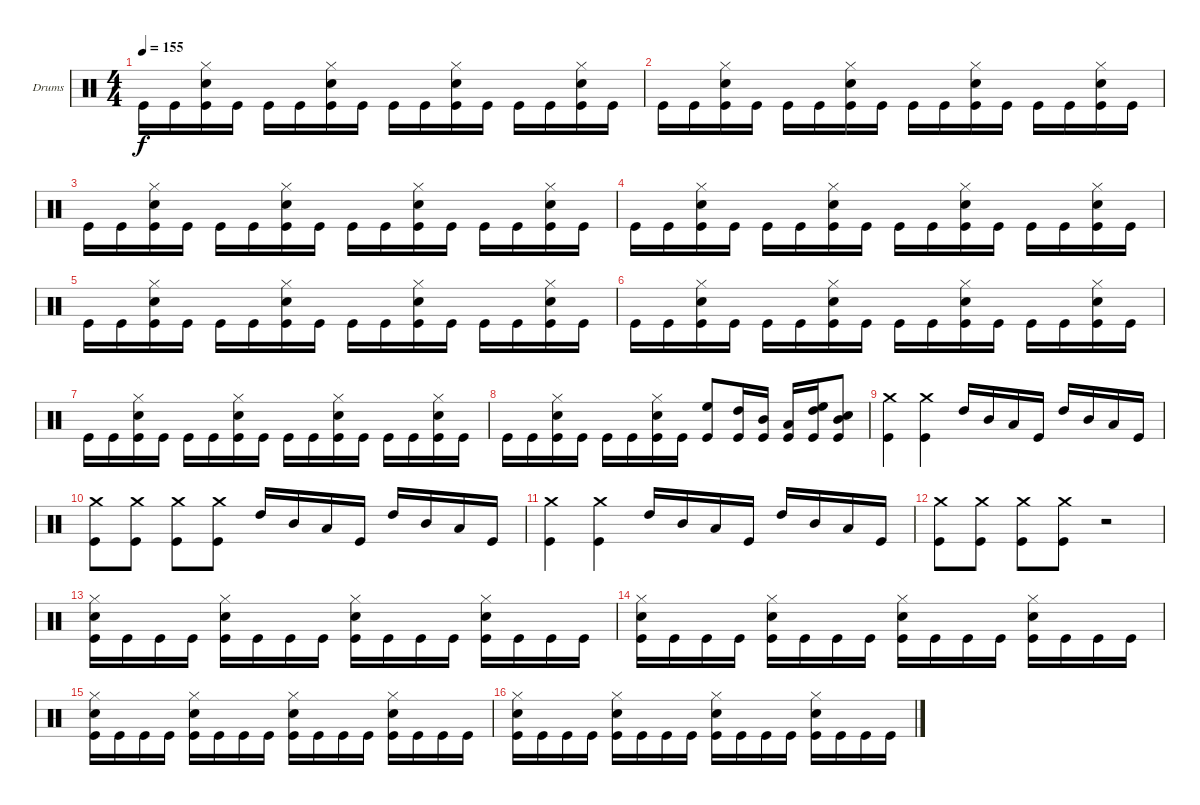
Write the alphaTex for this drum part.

\defaultSystemsLayout 4
\bracketExtendMode groupsimilarinstruments
\firstSystemTrackNameOrientation horizontal
\otherSystemsTrackNameOrientation horizontal
\track ("Drumkit" "Drums") {instrument percussion}
\staff {score}
\articulation defaults
\ts (4 4)
\tempo 155
\clef neutral
\ks c "Kick (hit)".16{dy f} "Kick (hit)".16
("Kick (hit)" "Snare (hit) 2" "Hi-Hat (closed)").16 "Kick (hit)".16 "Kick (hit)".16 "Kick (hit)".16 ("Kick (hit)" "Snare (hit) 2" "Hi-Hat (closed)").16 "Kick (hit)".16 "Kick (hit)".16 "Kick (hit)".16 ("Kick (hit)" "Snare (hit) 2" "Hi-Hat (closed)").16 "Kick (hit)".16 "Kick (hit)".16 "Kick (hit)".16 ("Kick (hit)" "Snare (hit) 2" "Hi-Hat (closed)").16 "Kick (hit)".16 |
"Kick (hit)".16 "Kick (hit)".16 ("Kick (hit)" "Snare (hit) 2" "Hi-Hat (closed)").16 "Kick (hit)".16 "Kick (hit)".16 "Kick (hit)".16 ("Kick (hit)" "Snare (hit) 2" "Hi-Hat (closed)").16 "Kick (hit)".16 "Kick (hit)".16 "Kick (hit)".16 ("Kick (hit)" "Snare (hit) 2" "Hi-Hat (closed)").16 "Kick (hit)".16 "Kick (hit)".16 "Kick (hit)".16 ("Kick (hit)" "Snare (hit) 2" "Hi-Hat (closed)").16 "Kick (hit)".16 |
"Kick (hit)".16 "Kick (hit)".16 ("Kick (hit)" "Snare (hit) 2" "Hi-Hat (closed)").16 "Kick (hit)".16 "Kick (hit)".16 "Kick (hit)".16 ("Kick (hit)" "Snare (hit) 2" "Hi-Hat (closed)").16 "Kick (hit)".16 "Kick (hit)".16 "Kick (hit)".16 ("Kick (hit)" "Snare (hit) 2" "Hi-Hat (closed)").16 "Kick (hit)".16 "Kick (hit)".16 "Kick (hit)".16 ("Kick (hit)" "Snare (hit) 2" "Hi-Hat (closed)").16 "Kick (hit)".16 |
"Kick (hit)".16 "Kick (hit)".16 ("Kick (hit)" "Snare (hit) 2" "Hi-Hat (closed)").16 "Kick (hit)".16 "Kick (hit)".16 "Kick (hit)".16 ("Kick (hit)" "Snare (hit) 2" "Hi-Hat (closed)").16 "Kick (hit)".16 "Kick (hit)".16 "Kick (hit)".16 ("Kick (hit)" "Snare (hit) 2" "Hi-Hat (closed)").16 "Kick (hit)".16 "Kick (hit)".16 "Kick (hit)".16 ("Kick (hit)" "Snare (hit) 2" "Hi-Hat (closed)").16 "Kick (hit)".16 |
"Kick (hit)".16 "Kick (hit)".16 ("Kick (hit)" "Snare (hit) 2" "Hi-Hat (closed)").16 "Kick (hit)".16 "Kick (hit)".16 "Kick (hit)".16 ("Kick (hit)" "Snare (hit) 2" "Hi-Hat (closed)").16 "Kick (hit)".16 "Kick (hit)".16 "Kick (hit)".16 ("Kick (hit)" "Snare (hit) 2" "Hi-Hat (closed)").16 "Kick (hit)".16 "Kick (hit)".16 "Kick (hit)".16 ("Kick (hit)" "Snare (hit) 2" "Hi-Hat (closed)").16 "Kick (hit)".16 |
"Kick (hit)".16 "Kick (hit)".16 ("Kick (hit)" "Snare (hit) 2" "Hi-Hat (closed)").16 "Kick (hit)".16 "Kick (hit)".16 "Kick (hit)".16 ("Kick (hit)" "Snare (hit) 2" "Hi-Hat (closed)").16 "Kick (hit)".16 "Kick (hit)".16 "Kick (hit)".16 ("Kick (hit)" "Snare (hit) 2" "Hi-Hat (closed)").16 "Kick (hit)".16 "Kick (hit)".16 "Kick (hit)".16 ("Kick (hit)" "Snare (hit) 2" "Hi-Hat (closed)").16 "Kick (hit)".16 |
"Kick (hit)".16 "Kick (hit)".16 ("Kick (hit)" "Snare (hit) 2" "Hi-Hat (closed)").16 "Kick (hit)".16 "Kick (hit)".16 "Kick (hit)".16 ("Kick (hit)" "Snare (hit) 2" "Hi-Hat (closed)").16 "Kick (hit)".16 "Kick (hit)".16 "Kick (hit)".16 ("Kick (hit)" "Snare (hit) 2" "Hi-Hat (closed)").16 "Kick (hit)".16 "Kick (hit)".16 "Kick (hit)".16 ("Kick (hit)" "Snare (hit) 2" "Hi-Hat (closed)").16 "Kick (hit)".16 |
"Kick (hit)".16 "Kick (hit)".16 ("Kick (hit)" "Snare (hit) 2" "Hi-Hat (closed)").16 "Kick (hit)".16 "Kick (hit)".16 "Kick (hit)".16 ("Kick (hit)" "Snare (hit) 2" "Hi-Hat (closed)").16 "Kick (hit)".16 ("Kick (hit)" "High Floor Tom (hit)").8 ("Kick (hit)" "High Tom (hit)").16 ("Kick (hit)" "Mid Tom (hit)").16 ("Kick (hit)" "Low Tom (hit)").16 ("Kick (hit)" "High Tom (hit)" "High Floor Tom (hit)").16 ("Kick (hit)" "Snare (hit) 2" "Mid Tom (hit)").8 |
("Kick (hit)" "Crash medium (hit)").4 ("Kick (hit)" "Crash medium (hit)").4 "High Tom (hit)".16 "Mid Tom (hit)".16 "Low Tom (hit)".16 "Kick (hit)".16 "High Tom (hit)".16 "Mid Tom (hit)".16 "Low Tom (hit)".16 "Kick (hit)".16 |
("Kick (hit)" "Crash medium (hit)").8 ("Kick (hit)" "Crash medium (hit)").8 ("Kick (hit)" "Crash medium (hit)").8 ("Kick (hit)" "Crash medium (hit)").8 "High Tom (hit)".16 "Mid Tom (hit)".16 "Low Tom (hit)".16 "Kick (hit)".16 "High Tom (hit)".16 "Mid Tom (hit)".16 "Low Tom (hit)".16 "Kick (hit)".16 |
("Kick (hit)" "Crash medium (hit)").4 ("Kick (hit)" "Crash medium (hit)").4 "High Tom (hit)".16 "Mid Tom (hit)".16 "Low Tom (hit)".16 "Kick (hit)".16 "High Tom (hit)".16 "Mid Tom (hit)".16 "Low Tom (hit)".16 "Kick (hit)".16 |
("Kick (hit)" "Crash medium (hit)").8 ("Kick (hit)" "Crash medium (hit)").8 ("Kick (hit)" "Crash medium (hit)").8 ("Kick (hit)" "Crash medium (hit)").8 r.2 |
("Kick (hit)" "Snare (hit) 2" "Hi-Hat (closed)").16 "Kick (hit)".16 "Kick (hit)".16 "Kick (hit)".16 ("Kick (hit)" "Snare (hit) 2" "Hi-Hat (closed)").16 "Kick (hit)".16 "Kick (hit)".16 "Kick (hit)".16 ("Kick (hit)" "Snare (hit) 2" "Hi-Hat (closed)").16 "Kick (hit)".16 "Kick (hit)".16 "Kick (hit)".16 ("Kick (hit)" "Snare (hit) 2" "Hi-Hat (closed)").16 "Kick (hit)".16 "Kick (hit)".16 "Kick (hit)".16 |
("Kick (hit)" "Snare (hit) 2" "Hi-Hat (closed)").16 "Kick (hit)".16 "Kick (hit)".16 "Kick (hit)".16 ("Kick (hit)" "Snare (hit) 2" "Hi-Hat (closed)").16 "Kick (hit)".16 "Kick (hit)".16 "Kick (hit)".16 ("Kick (hit)" "Snare (hit) 2" "Hi-Hat (closed)").16 "Kick (hit)".16 "Kick (hit)".16 "Kick (hit)".16 ("Kick (hit)" "Snare (hit) 2" "Hi-Hat (closed)").16 "Kick (hit)".16 "Kick (hit)".16 "Kick (hit)".16 |
("Kick (hit)" "Snare (hit) 2" "Hi-Hat (closed)").16 "Kick (hit)".16 "Kick (hit)".16 "Kick (hit)".16 ("Kick (hit)" "Snare (hit) 2" "Hi-Hat (closed)").16 "Kick (hit)".16 "Kick (hit)".16 "Kick (hit)".16 ("Kick (hit)" "Snare (hit) 2" "Hi-Hat (closed)").16 "Kick (hit)".16 "Kick (hit)".16 "Kick (hit)".16 ("Kick (hit)" "Snare (hit) 2" "Hi-Hat (closed)").16 "Kick (hit)".16 "Kick (hit)".16 "Kick (hit)".16 |
("Kick (hit)" "Snare (hit) 2" "Hi-Hat (closed)").16 "Kick (hit)".16 "Kick (hit)".16 "Kick (hit)".16 ("Kick (hit)" "Snare (hit) 2" "Hi-Hat (closed)").16 "Kick (hit)".16 "Kick (hit)".16 "Kick (hit)".16 ("Kick (hit)" "Snare (hit) 2" "Hi-Hat (closed)").16 "Kick (hit)".16 "Kick (hit)".16 "Kick (hit)".16 ("Kick (hit)" "Snare (hit) 2" "Hi-Hat (closed)").16 "Kick (hit)".16 "Kick (hit)".16 "Kick (hit)".16
